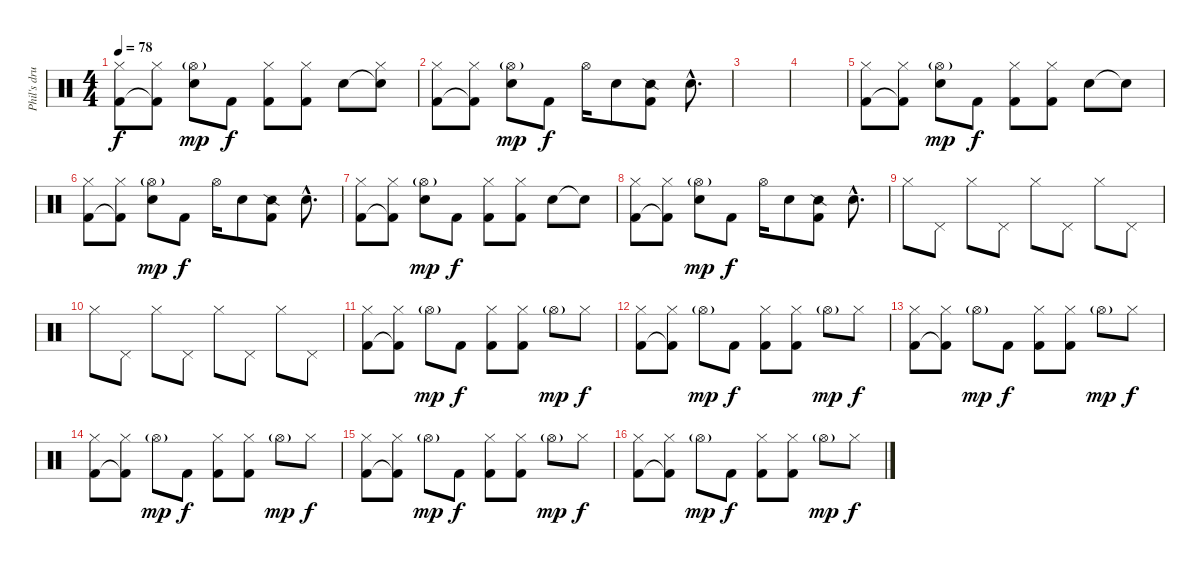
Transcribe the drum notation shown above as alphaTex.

\track ("Phil's drums" "Phil's dru") {instrument percussion}
\staff {score}
\articulation defaults
\ts (4 4)
\tempo 78
\clef neutral
\ks c
("Kick (hit) 2" "Hi-Hat (closed)").8{dy f} ("Kick (hit) 2"{t} "Hi-Hat (closed)").8 ("Snare (hit) 2" "Hi-Hat (open)"{g}).8{dy mp} "Kick (hit) 2".8{dy f} ("Kick (hit) 2" "Hi-Hat (closed)").8 ("Kick (hit) 2" "Hi-Hat (closed)").8 "Snare (hit) 2".8 ("Snare (hit) 2"{t} "Hi-Hat (closed)").8 |
("Kick (hit) 2" "Hi-Hat (closed)").8 ("Kick (hit) 2"{t} "Hi-Hat (closed)").8 ("Snare (hit) 2" "Hi-Hat (open)"{g}).8{dy mp} "Kick (hit) 2".8{dy f} "Hi-Hat (open)".16 "Snare (hit) 2".8 ("Snare (side stick) 2" "Kick (hit) 2").8 "Snare (hit) 2"{hac}.8{d} |
|
|
("Kick (hit) 2" "Hi-Hat (closed)").8 ("Kick (hit) 2"{t} "Hi-Hat (closed)").8 ("Snare (hit) 2" "Hi-Hat (open)"{g}).8{dy mp} "Kick (hit) 2".8{dy f} ("Kick (hit) 2" "Hi-Hat (closed)").8 ("Kick (hit) 2" "Hi-Hat (closed)").8 "Snare (hit) 2".8 "Snare (hit) 2"{t}.8 |
("Kick (hit) 2" "Hi-Hat (closed)").8 ("Kick (hit) 2"{t} "Hi-Hat (closed)").8 ("Snare (hit) 2" "Hi-Hat (open)"{g}).8{dy mp} "Kick (hit) 2".8{dy f} "Hi-Hat (open)".16 "Snare (hit) 2".8 ("Snare (side stick) 2" "Kick (hit) 2").8 "Snare (hit) 2"{hac}.8{d} |
("Kick (hit) 2" "Hi-Hat (closed)").8 ("Kick (hit) 2"{t} "Hi-Hat (closed)").8 ("Snare (hit) 2" "Hi-Hat (open)"{g}).8{dy mp} "Kick (hit) 2".8{dy f} ("Kick (hit) 2" "Hi-Hat (closed)").8 ("Kick (hit) 2" "Hi-Hat (closed)").8 "Snare (hit) 2".8 "Snare (hit) 2"{t}.8 |
("Kick (hit) 2" "Hi-Hat (closed)").8 ("Kick (hit) 2"{t} "Hi-Hat (closed)").8 ("Snare (hit) 2" "Hi-Hat (open)"{g}).8{dy mp} "Kick (hit) 2".8{dy f} "Hi-Hat (open)".16 "Snare (hit) 2".8 ("Snare (side stick) 2" "Kick (hit) 2").8 "Snare (hit) 2"{hac}.8{d} |
"Hi-Hat (closed)".8 "Pedal Hi-Hat (hit)".8 "Hi-Hat (closed)".8 "Pedal Hi-Hat (hit)".8 "Hi-Hat (closed)".8 "Pedal Hi-Hat (hit)".8 "Hi-Hat (closed)".8 "Pedal Hi-Hat (hit)".8 |
"Hi-Hat (closed)".8 "Pedal Hi-Hat (hit)".8 "Hi-Hat (closed)".8 "Pedal Hi-Hat (hit)".8 "Hi-Hat (closed)".8 "Pedal Hi-Hat (hit)".8 "Hi-Hat (closed)".8 "Pedal Hi-Hat (hit)".8 |
("Kick (hit) 2" "Hi-Hat (closed)").8 ("Kick (hit) 2"{t} "Hi-Hat (closed)").8 "Hi-Hat (open)"{g}.8{dy mp} "Kick (hit) 2".8{dy f} ("Kick (hit) 2" "Hi-Hat (closed)").8 ("Kick (hit) 2" "Hi-Hat (closed)").8 "Hi-Hat (open)"{g}.8{dy mp} "Hi-Hat (closed)".8{dy f} |
("Kick (hit) 2" "Hi-Hat (closed)").8 ("Kick (hit) 2"{t} "Hi-Hat (closed)").8 "Hi-Hat (open)"{g}.8{dy mp} "Kick (hit) 2".8{dy f} ("Kick (hit) 2" "Hi-Hat (closed)").8 ("Kick (hit) 2" "Hi-Hat (closed)").8 "Hi-Hat (open)"{g}.8{dy mp} "Hi-Hat (closed)".8{dy f} |
("Kick (hit) 2" "Hi-Hat (closed)").8 ("Kick (hit) 2"{t} "Hi-Hat (closed)").8 "Hi-Hat (open)"{g}.8{dy mp} "Kick (hit) 2".8{dy f} ("Kick (hit) 2" "Hi-Hat (closed)").8 ("Kick (hit) 2" "Hi-Hat (closed)").8 "Hi-Hat (open)"{g}.8{dy mp} "Hi-Hat (closed)".8{dy f} |
("Kick (hit) 2" "Hi-Hat (closed)").8 ("Kick (hit) 2"{t} "Hi-Hat (closed)").8 "Hi-Hat (open)"{g}.8{dy mp} "Kick (hit) 2".8{dy f} ("Kick (hit) 2" "Hi-Hat (closed)").8 ("Kick (hit) 2" "Hi-Hat (closed)").8 "Hi-Hat (open)"{g}.8{dy mp} "Hi-Hat (closed)".8{dy f} |
("Kick (hit) 2" "Hi-Hat (closed)").8 ("Kick (hit) 2"{t} "Hi-Hat (closed)").8 "Hi-Hat (open)"{g}.8{dy mp} "Kick (hit) 2".8{dy f} ("Kick (hit) 2" "Hi-Hat (closed)").8 ("Kick (hit) 2" "Hi-Hat (closed)").8 "Hi-Hat (open)"{g}.8{dy mp} "Hi-Hat (closed)".8{dy f} |
("Kick (hit) 2" "Hi-Hat (closed)").8 ("Kick (hit) 2"{t} "Hi-Hat (closed)").8 "Hi-Hat (open)"{g}.8{dy mp} "Kick (hit) 2".8{dy f} ("Kick (hit) 2" "Hi-Hat (closed)").8 ("Kick (hit) 2" "Hi-Hat (closed)").8 "Hi-Hat (open)"{g}.8{dy mp} "Hi-Hat (closed)".8{dy f}
